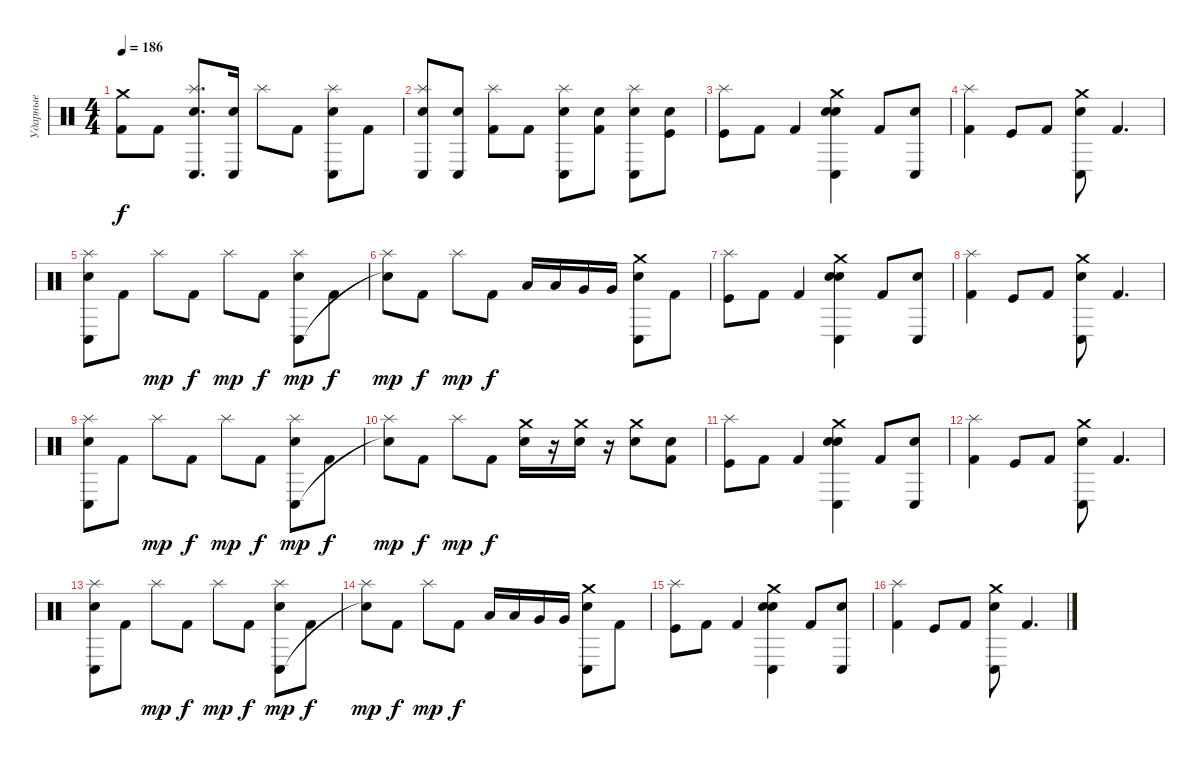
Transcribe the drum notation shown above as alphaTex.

\track ("Ударные" "Ударные") {instrument percussion}
\staff {score}
\articulation defaults
\ts (4 4)
\tempo 186
\clef neutral
\ks c
("Crash medium (hit)" "Kick (hit) 2").8{dy f} "Kick (hit) 2".8 ("Splash (hit)" "Conga low (hit)" "Electric Snare (hit)").8{d} ("Conga low (hit)" "Electric Snare (hit)").16 "Splash (hit)".8 "Kick (hit) 2".8 ("Splash (hit)" "Conga low (hit)" "Electric Snare (hit)").8 "Kick (hit) 2".8 |
("Splash (hit)" "Conga low (hit)" "Electric Snare (hit)").8 ("Conga low (hit)" "Electric Snare (hit)").8 ("Splash (hit)" "Kick (hit) 2").8 "Kick (hit) 2".8 ("Splash (hit)" "Conga low (hit)" "Electric Snare (hit)").8 ("Electric Snare (hit)" "Kick (hit) 2").8 ("Splash (hit)" "Conga low (hit)" "Electric Snare (hit)").8 ("Electric Snare (hit)" "Kick (hit)").8 |
("Splash (hit)" "Kick (hit)").8 "Kick (hit) 2".8 "Kick (hit) 2".4 ("Crash medium (hit)" "Conga low (hit)" "Electric Snare (hit)" "Snare (hit) 2").4 "Kick (hit) 2".8 ("Conga low (hit)" "Electric Snare (hit)").8 |
("Splash (hit)" "Kick (hit) 2").4 "Kick (hit)".8 "Kick (hit) 2".8 ("Crash medium (hit)" "Conga low (hit)" "Electric Snare (hit)").8 "Kick (hit) 2".4{d} |
("Splash (hit)" "Conga low (hit)" "Electric Snare (hit)").8 "Kick (hit) 2".8 "Splash (hit)".8{dy mp} "Kick (hit) 2".8{dy f} "Splash (hit)".8{dy mp} "Kick (hit) 2".8{dy f} ("Splash (hit)" "Conga low (hit)" "Electric Snare (hit)").8{dy mp} "Kick (hit) 2".8{dy f} |
("Splash (hit)" "Snare (hit)"{t}).8{dy mp} "Kick (hit) 2".8{dy f} "Splash (hit)".8{dy mp} "Kick (hit) 2".8{dy f} "Low Tom (hit)".16 "Low Tom (hit)".16 "Very Low Tom (hit)".16 "Very Low Tom (hit)".16 ("Crash medium (hit)" "Conga low (hit)" "Electric Snare (hit)").8 "Kick (hit) 2".8 |
("Splash (hit)" "Kick (hit)").8 "Kick (hit) 2".8 "Kick (hit) 2".4 ("Crash medium (hit)" "Conga low (hit)" "Electric Snare (hit)" "Snare (hit) 2").4 "Kick (hit) 2".8 ("Conga low (hit)" "Electric Snare (hit)").8 |
("Splash (hit)" "Kick (hit) 2").4 "Kick (hit)".8 "Kick (hit) 2".8 ("Crash medium (hit)" "Conga low (hit)" "Electric Snare (hit)").8 "Kick (hit) 2".4{d} |
("Splash (hit)" "Conga low (hit)" "Electric Snare (hit)").8 "Kick (hit) 2".8 "Splash (hit)".8{dy mp} "Kick (hit) 2".8{dy f} "Splash (hit)".8{dy mp} "Kick (hit) 2".8{dy f} ("Splash (hit)" "Conga low (hit)" "Electric Snare (hit)").8{dy mp} "Kick (hit) 2".8{dy f} |
("Splash (hit)" "Snare (hit)"{t}).8{dy mp} "Kick (hit) 2".8{dy f} "Splash (hit)".8{dy mp} "Kick (hit) 2".8{dy f} ("Crash medium (hit)" "Electric Snare (hit)").16 r.16 ("Crash medium (hit)" "Electric Snare (hit)").16 r.16 ("Crash medium (hit)" "Electric Snare (hit)").8 ("Electric Snare (hit)" "Kick (hit) 2").8 |
("Splash (hit)" "Kick (hit)").8 "Kick (hit) 2".8 "Kick (hit) 2".4 ("Crash medium (hit)" "Conga low (hit)" "Electric Snare (hit)" "Snare (hit) 2").4 "Kick (hit) 2".8 ("Conga low (hit)" "Electric Snare (hit)").8 |
("Splash (hit)" "Kick (hit) 2").4 "Kick (hit)".8 "Kick (hit) 2".8 ("Crash medium (hit)" "Conga low (hit)" "Electric Snare (hit)").8 "Kick (hit) 2".4{d} |
("Splash (hit)" "Conga low (hit)" "Electric Snare (hit)").8 "Kick (hit) 2".8 "Splash (hit)".8{dy mp} "Kick (hit) 2".8{dy f} "Splash (hit)".8{dy mp} "Kick (hit) 2".8{dy f} ("Splash (hit)" "Conga low (hit)" "Electric Snare (hit)").8{dy mp} "Kick (hit) 2".8{dy f} |
("Splash (hit)" "Snare (hit)"{t}).8{dy mp} "Kick (hit) 2".8{dy f} "Splash (hit)".8{dy mp} "Kick (hit) 2".8{dy f} "Low Tom (hit)".16 "Low Tom (hit)".16 "Very Low Tom (hit)".16 "Very Low Tom (hit)".16 ("Crash medium (hit)" "Conga low (hit)" "Electric Snare (hit)").8 "Kick (hit) 2".8 |
("Splash (hit)" "Kick (hit)").8 "Kick (hit) 2".8 "Kick (hit) 2".4 ("Crash medium (hit)" "Conga low (hit)" "Electric Snare (hit)" "Snare (hit) 2").4 "Kick (hit) 2".8 ("Conga low (hit)" "Electric Snare (hit)").8 |
("Splash (hit)" "Kick (hit) 2").4 "Kick (hit)".8 "Kick (hit) 2".8 ("Crash medium (hit)" "Conga low (hit)" "Electric Snare (hit)").8 "Kick (hit) 2".4{d}
